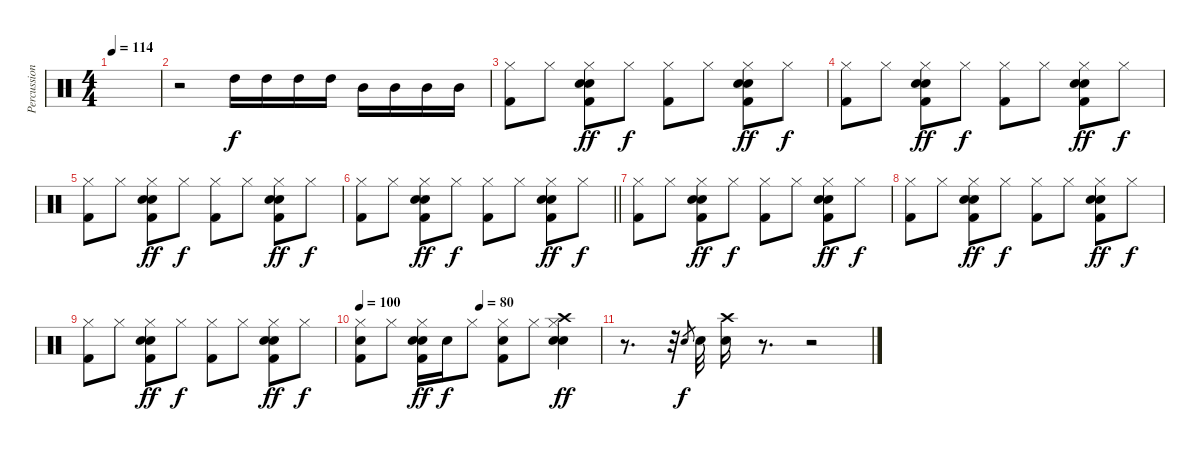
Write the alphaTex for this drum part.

\track ("Percussion" "Percussion") {instrument percussion}
\staff {score}
\articulation defaults
\ts (4 4)
\tempo 114
\clef neutral
\ks c
|
r.2 "High Tom (hit)".16{dy f} "High Tom (hit)".16 "High Tom (hit)".16 "High Tom (hit)".16 "Mid Tom (hit)".16 "Mid Tom (hit)".16 "Mid Tom (hit)".16 "Mid Tom (hit)".16 |
("Hi-Hat (closed)" "Kick (hit) 2").8 "Hi-Hat (closed)".8 ("Hand Clap (hit)" "Hi-Hat (closed)" "Snare (hit) 2" "Kick (hit) 2").8{dy ff} "Hi-Hat (closed)".8{dy f} ("Hi-Hat (closed)" "Kick (hit) 2").8 "Hi-Hat (closed)".8 ("Hand Clap (hit)" "Hi-Hat (closed)" "Snare (hit) 2" "Kick (hit) 2").8{dy ff} "Hi-Hat (closed)".8{dy f} |
("Hi-Hat (closed)" "Kick (hit) 2").8 "Hi-Hat (closed)".8 ("Hand Clap (hit)" "Hi-Hat (closed)" "Snare (hit) 2" "Kick (hit) 2").8{dy ff} "Hi-Hat (closed)".8{dy f} ("Hi-Hat (closed)" "Kick (hit) 2").8 "Hi-Hat (closed)".8 ("Hand Clap (hit)" "Hi-Hat (closed)" "Snare (hit) 2" "Kick (hit) 2").8{dy ff} "Hi-Hat (closed)".8{dy f} |
("Hi-Hat (closed)" "Kick (hit) 2").8 "Hi-Hat (closed)".8 ("Hand Clap (hit)" "Hi-Hat (closed)" "Snare (hit) 2" "Kick (hit) 2").8{dy ff} "Hi-Hat (closed)".8{dy f} ("Hi-Hat (closed)" "Kick (hit) 2").8 "Hi-Hat (closed)".8 ("Hand Clap (hit)" "Hi-Hat (closed)" "Snare (hit) 2" "Kick (hit) 2").8{dy ff} "Hi-Hat (closed)".8{dy f} |
\barLineRight lightlight
("Hi-Hat (closed)" "Kick (hit) 2").8 "Hi-Hat (closed)".8 ("Hand Clap (hit)" "Hi-Hat (closed)" "Snare (hit) 2" "Kick (hit) 2").8{dy ff} "Hi-Hat (closed)".8{dy f} ("Hi-Hat (closed)" "Kick (hit) 2").8 "Hi-Hat (closed)".8 ("Hand Clap (hit)" "Hi-Hat (closed)" "Snare (hit) 2" "Kick (hit) 2").8{dy ff} "Hi-Hat (closed)".8{dy f} |
("Hi-Hat (closed)" "Kick (hit) 2").8 "Hi-Hat (closed)".8 ("Hand Clap (hit)" "Hi-Hat (closed)" "Snare (hit) 2" "Kick (hit) 2").8{dy ff} "Hi-Hat (closed)".8{dy f} ("Hi-Hat (closed)" "Kick (hit) 2").8 "Hi-Hat (closed)".8 ("Hand Clap (hit)" "Hi-Hat (closed)" "Snare (hit) 2" "Kick (hit) 2").8{dy ff} "Hi-Hat (closed)".8{dy f} |
("Hi-Hat (closed)" "Kick (hit) 2").8 "Hi-Hat (closed)".8 ("Hand Clap (hit)" "Hi-Hat (closed)" "Snare (hit) 2" "Kick (hit) 2").8{dy ff} "Hi-Hat (closed)".8{dy f} ("Hi-Hat (closed)" "Kick (hit) 2").8 "Hi-Hat (closed)".8 ("Hand Clap (hit)" "Hi-Hat (closed)" "Snare (hit) 2" "Kick (hit) 2").8{dy ff} "Hi-Hat (closed)".8{dy f} |
("Hi-Hat (closed)" "Kick (hit) 2").8 "Hi-Hat (closed)".8 ("Hand Clap (hit)" "Hi-Hat (closed)" "Snare (hit) 2" "Kick (hit) 2").8{dy ff} "Hi-Hat (closed)".8{dy f} ("Hi-Hat (closed)" "Kick (hit) 2").8 "Hi-Hat (closed)".8 ("Hand Clap (hit)" "Hi-Hat (closed)" "Snare (hit) 2" "Kick (hit) 2").8{dy ff} "Hi-Hat (closed)".8{dy f} |
\tempo 100
\tempo (80 0.5)
("Hi-Hat (closed)" "Snare (hit) 2" "Kick (hit) 2").8 "Hi-Hat (closed)".8 ("Hand Clap (hit)" "Hi-Hat (closed)" "Snare (hit) 2" "Kick (hit) 2").16{dy ff} "Snare (hit) 2".16{dy f} "Hi-Hat (closed)".8 ("Hi-Hat (closed)" "Snare (hit) 2" "Kick (hit) 2").8 "Hi-Hat (closed)".8 ("Hand Clap (hit)" "Hi-Hat (closed)" "Snare (hit) 2" "Crash high (hit)").4{dy ff} |
r.8{d} r.32 "Snare (hit) 2".8{gr dy f} "Snare (hit) 2".32 ("Snare (hit) 2" "Crash high (hit)").16 r.8{d} r.2
